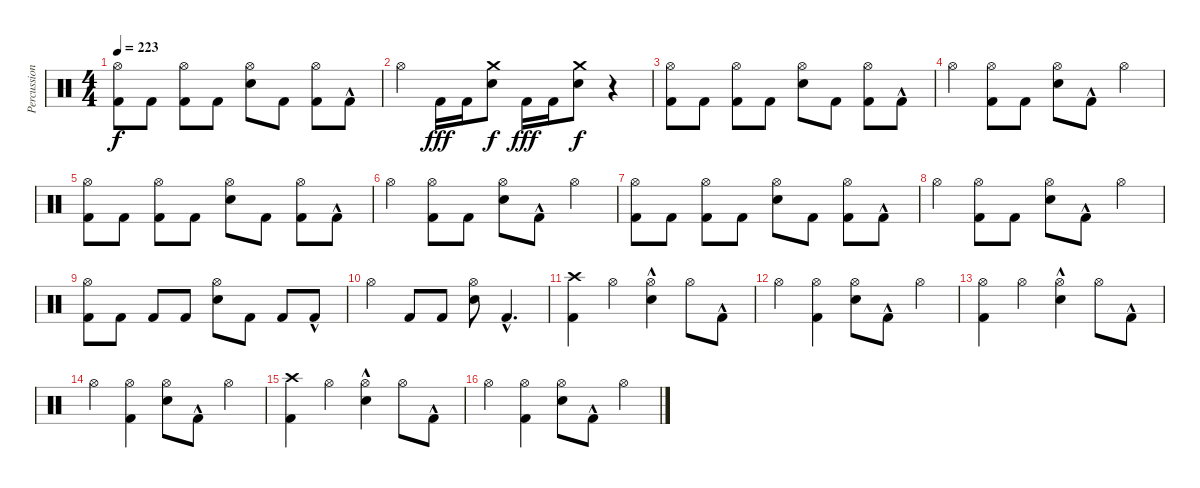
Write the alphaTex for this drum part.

\track ("Percussion" "Percussion") {instrument percussion}
\staff {score}
\articulation defaults
\ts (4 4)
\tempo 223
\clef neutral
\ks c
("Hi-Hat (open)" "Kick (hit) 2").8{dy f} "Kick (hit) 2".8 ("Hi-Hat (open)" "Kick (hit) 2").8 "Kick (hit) 2".8 ("Hi-Hat (open)" "Electric Snare (hit)").8 "Kick (hit) 2".8 ("Hi-Hat (open)" "Kick (hit) 2").8 "Kick (hit) 2"{hac}.8 |
"Hi-Hat (open)".4 "Kick (hit) 2".16{dy fff} "Kick (hit) 2".16 ("Crash medium (hit)" "Electric Snare (hit)").8{dy f} "Kick (hit) 2".16{dy fff} "Kick (hit) 2".16 ("Crash medium (hit)" "Electric Snare (hit)").8{dy f} r.4 |
("Kick (hit) 2" "Hi-Hat (open)").8 "Kick (hit) 2".8 ("Hi-Hat (open)" "Kick (hit) 2").8 "Kick (hit) 2".8 ("Hi-Hat (open)" "Electric Snare (hit)").8 "Kick (hit) 2".8 ("Hi-Hat (open)" "Kick (hit) 2").8 "Kick (hit) 2"{hac}.8 |
"Hi-Hat (open)".4 ("Hi-Hat (open)" "Kick (hit) 2").8 "Kick (hit) 2".8 ("Hi-Hat (open)" "Electric Snare (hit)").8 "Kick (hit) 2"{hac}.8 "Hi-Hat (open)".4 |
("Hi-Hat (open)" "Kick (hit) 2").8 "Kick (hit) 2".8 ("Hi-Hat (open)" "Kick (hit) 2").8 "Kick (hit) 2".8 ("Hi-Hat (open)" "Electric Snare (hit)").8 "Kick (hit) 2".8 ("Hi-Hat (open)" "Kick (hit) 2").8 "Kick (hit) 2"{hac}.8 |
"Hi-Hat (open)".4 ("Hi-Hat (open)" "Kick (hit) 2").8 "Kick (hit) 2".8 ("Hi-Hat (open)" "Electric Snare (hit)").8 "Kick (hit) 2"{hac}.8 "Hi-Hat (open)".4 |
("Kick (hit) 2" "Hi-Hat (open)").8 "Kick (hit) 2".8 ("Hi-Hat (open)" "Kick (hit) 2").8 "Kick (hit) 2".8 ("Hi-Hat (open)" "Electric Snare (hit)").8 "Kick (hit) 2".8 ("Hi-Hat (open)" "Kick (hit) 2").8 "Kick (hit) 2"{hac}.8 |
"Hi-Hat (open)".4 ("Kick (hit) 2" "Hi-Hat (open)").8 "Kick (hit) 2".8 ("Electric Snare (hit)" "Hi-Hat (open)").8 "Kick (hit) 2"{hac}.8 "Hi-Hat (open)".4 |
("Hi-Hat (open)" "Kick (hit) 2").8 "Kick (hit) 2".8 "Kick (hit) 2".8 "Kick (hit) 2".8 ("Hi-Hat (open)" "Electric Snare (hit)").8 "Kick (hit) 2".8 "Kick (hit) 2".8 "Kick (hit) 2"{hac}.8 |
"Hi-Hat (open)".4 "Kick (hit) 2".8 "Kick (hit) 2".8 ("Hi-Hat (open)" "Electric Snare (hit)").8 "Kick (hit) 2"{hac}.4{d} |
("Crash high (hit)" "Kick (hit) 2").4 "Hi-Hat (open)".4 ("Hi-Hat (open)" "Electric Snare (hit)"{hac}).4 "Hi-Hat (open)".8 "Kick (hit) 2"{hac}.8 |
"Hi-Hat (open)".4 ("Hi-Hat (open)" "Kick (hit) 2").4 ("Hi-Hat (open)" "Electric Snare (hit)").8 "Kick (hit) 2"{hac}.8 "Hi-Hat (open)".4 |
("Hi-Hat (open)" "Kick (hit) 2").4 "Hi-Hat (open)".4 ("Hi-Hat (open)" "Electric Snare (hit)"{hac}).4 "Hi-Hat (open)".8 "Kick (hit) 2"{hac}.8 |
"Hi-Hat (open)".4 ("Hi-Hat (open)" "Kick (hit) 2").4 ("Hi-Hat (open)" "Electric Snare (hit)").8 "Kick (hit) 2"{hac}.8 "Hi-Hat (open)".4 |
("Crash high (hit)" "Kick (hit) 2").4 "Hi-Hat (open)".4 ("Hi-Hat (open)" "Electric Snare (hit)"{hac}).4 "Hi-Hat (open)".8 "Kick (hit) 2"{hac}.8 |
"Hi-Hat (open)".4 ("Hi-Hat (open)" "Kick (hit) 2").4 ("Hi-Hat (open)" "Electric Snare (hit)").8 "Kick (hit) 2"{hac}.8 "Hi-Hat (open)".4
